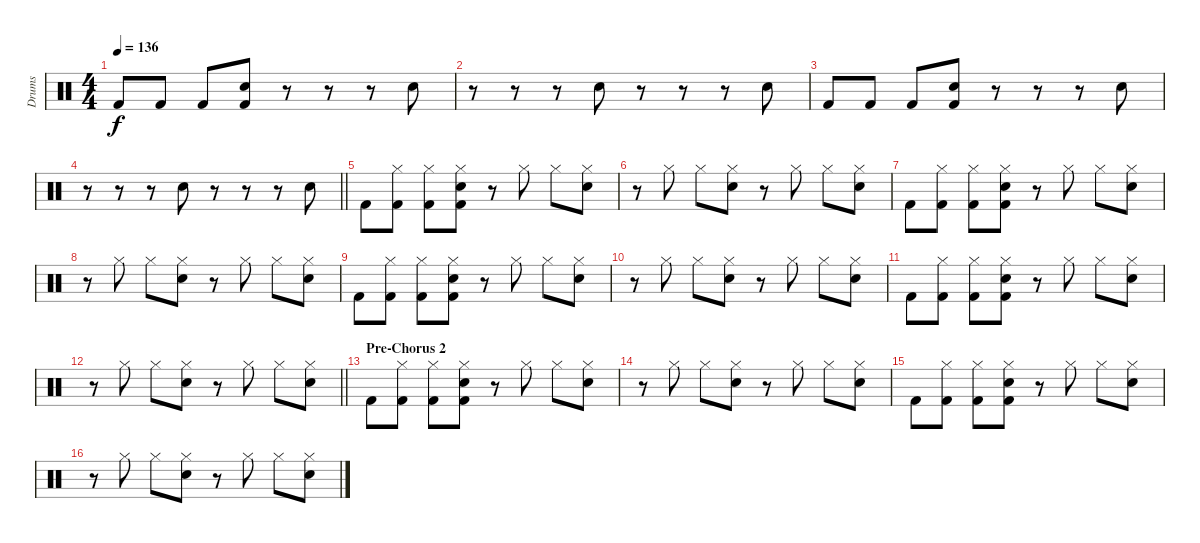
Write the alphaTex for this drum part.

\track ("Drums" "Drums") {instrument percussion}
\staff {score}
\articulation defaults
\ts (4 4)
\tempo 136
\clef neutral
\ks c "Kick (hit) 2".8{dy f} "Kick (hit) 2".8 "Kick (hit) 2".8
("Kick (hit) 2" "Snare (hit) 2").8 r.8 r.8 r.8 "Snare (hit) 2".8 |
r.8 r.8 r.8 "Snare (hit) 2".8 r.8 r.8 r.8 "Snare (hit) 2".8 |
"Kick (hit) 2".8 "Kick (hit) 2".8 "Kick (hit) 2".8 ("Kick (hit) 2" "Snare (hit) 2").8 r.8 r.8 r.8 "Snare (hit) 2".8 |
\barLineRight lightlight
r.8 r.8 r.8 "Snare (hit) 2".8 r.8 r.8 r.8 "Snare (hit) 2".8 |
\section ("" "")
"Kick (hit) 2".8 ("Kick (hit) 2" "Hi-Hat (closed)").8 ("Kick (hit) 2" "Hi-Hat (closed)").8 ("Kick (hit) 2" "Hi-Hat (closed)" "Snare (hit) 2").8 r.8 "Hi-Hat (closed)".8 "Hi-Hat (closed)".8 ("Hi-Hat (closed)" "Snare (hit) 2").8 |
r.8 "Hi-Hat (closed)".8 "Hi-Hat (closed)".8 ("Hi-Hat (closed)" "Snare (hit) 2").8 r.8 "Hi-Hat (closed)".8 "Hi-Hat (closed)".8 ("Hi-Hat (closed)" "Snare (hit) 2").8 |
"Kick (hit) 2".8 ("Kick (hit) 2" "Hi-Hat (closed)").8 ("Kick (hit) 2" "Hi-Hat (closed)").8 ("Kick (hit) 2" "Hi-Hat (closed)" "Snare (hit) 2").8 r.8 "Hi-Hat (closed)".8 "Hi-Hat (closed)".8 ("Hi-Hat (closed)" "Snare (hit) 2").8 |
r.8 "Hi-Hat (closed)".8 "Hi-Hat (closed)".8 ("Hi-Hat (closed)" "Snare (hit) 2").8 r.8 "Hi-Hat (closed)".8 "Hi-Hat (closed)".8 ("Hi-Hat (closed)" "Snare (hit) 2").8 |
"Kick (hit) 2".8 ("Kick (hit) 2" "Hi-Hat (closed)").8 ("Kick (hit) 2" "Hi-Hat (closed)").8 ("Kick (hit) 2" "Hi-Hat (closed)" "Snare (hit) 2").8 r.8 "Hi-Hat (closed)".8 "Hi-Hat (closed)".8 ("Hi-Hat (closed)" "Snare (hit) 2").8 |
r.8 "Hi-Hat (closed)".8 "Hi-Hat (closed)".8 ("Hi-Hat (closed)" "Snare (hit) 2").8 r.8 "Hi-Hat (closed)".8 "Hi-Hat (closed)".8 ("Hi-Hat (closed)" "Snare (hit) 2").8 |
"Kick (hit) 2".8 ("Kick (hit) 2" "Hi-Hat (closed)").8 ("Kick (hit) 2" "Hi-Hat (closed)").8 ("Kick (hit) 2" "Hi-Hat (closed)" "Snare (hit) 2").8 r.8 "Hi-Hat (closed)".8 "Hi-Hat (closed)".8 ("Hi-Hat (closed)" "Snare (hit) 2").8 |
\barLineRight lightlight
r.8 "Hi-Hat (closed)".8 "Hi-Hat (closed)".8 ("Hi-Hat (closed)" "Snare (hit) 2").8 r.8 "Hi-Hat (closed)".8 "Hi-Hat (closed)".8 ("Hi-Hat (closed)" "Snare (hit) 2").8 |
\section ("" "Pre-Chorus 2")
"Kick (hit) 2".8 ("Kick (hit) 2" "Hi-Hat (closed)").8 ("Kick (hit) 2" "Hi-Hat (closed)").8 ("Kick (hit) 2" "Hi-Hat (closed)" "Snare (hit) 2").8 r.8 "Hi-Hat (closed)".8 "Hi-Hat (closed)".8 ("Hi-Hat (closed)" "Snare (hit) 2").8 |
r.8 "Hi-Hat (closed)".8 "Hi-Hat (closed)".8 ("Hi-Hat (closed)" "Snare (hit) 2").8 r.8 "Hi-Hat (closed)".8 "Hi-Hat (closed)".8 ("Hi-Hat (closed)" "Snare (hit) 2").8 |
"Kick (hit) 2".8 ("Kick (hit) 2" "Hi-Hat (closed)").8 ("Kick (hit) 2" "Hi-Hat (closed)").8 ("Kick (hit) 2" "Hi-Hat (closed)" "Snare (hit) 2").8 r.8 "Hi-Hat (closed)".8 "Hi-Hat (closed)".8 ("Hi-Hat (closed)" "Snare (hit) 2").8 |
r.8 "Hi-Hat (closed)".8 "Hi-Hat (closed)".8 ("Hi-Hat (closed)" "Snare (hit) 2").8 r.8 "Hi-Hat (closed)".8 "Hi-Hat (closed)".8 ("Hi-Hat (closed)" "Snare (hit) 2").8
